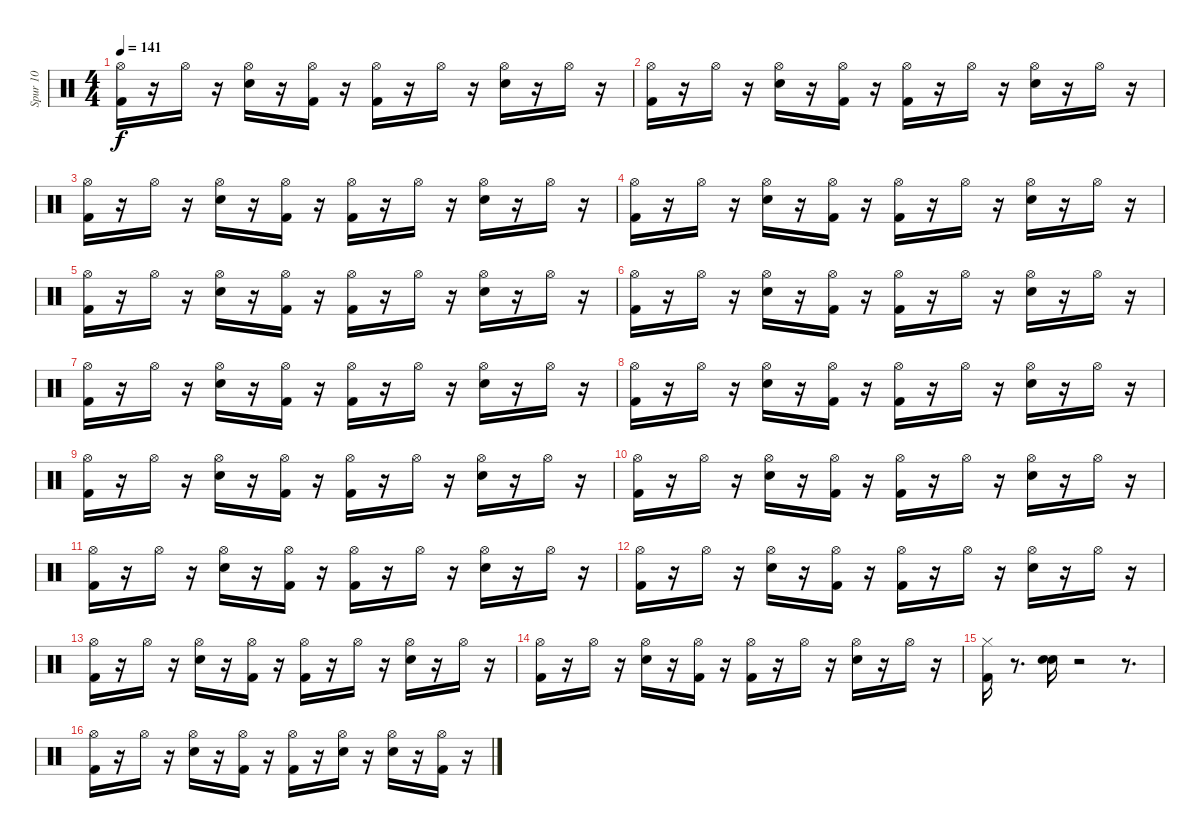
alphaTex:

\track ("Spur 10" "Spur 10") {instrument percussion}
\staff {score}
\articulation defaults
\ts (4 4)
\tempo 141
\clef neutral
\ks c
("Kick (hit) 2" "Hi-Hat (open)").16{dy f} r.16 "Hi-Hat (open)".16 r.16 ("Snare (hit) 2" "Hi-Hat (open)").16 r.16 ("Kick (hit) 2" "Hi-Hat (open)").16 r.16 ("Kick (hit) 2" "Hi-Hat (open)").16 r.16 "Hi-Hat (open)".16 r.16 ("Snare (hit) 2" "Hi-Hat (open)").16 r.16 "Hi-Hat (open)".16 r.16 |
("Hi-Hat (open)" "Kick (hit) 2").16 r.16 "Hi-Hat (open)".16 r.16 ("Hi-Hat (open)" "Snare (hit) 2").16 r.16 ("Hi-Hat (open)" "Kick (hit) 2").16 r.16 ("Hi-Hat (open)" "Kick (hit) 2").16 r.16 "Hi-Hat (open)".16 r.16 ("Hi-Hat (open)" "Snare (hit) 2").16 r.16 "Hi-Hat (open)".16 r.16 |
("Hi-Hat (open)" "Kick (hit) 2").16 r.16 "Hi-Hat (open)".16 r.16 ("Hi-Hat (open)" "Snare (hit) 2").16 r.16 ("Hi-Hat (open)" "Kick (hit) 2").16 r.16 ("Hi-Hat (open)" "Kick (hit) 2").16 r.16 "Hi-Hat (open)".16 r.16 ("Hi-Hat (open)" "Snare (hit) 2").16 r.16 "Hi-Hat (open)".16 r.16 |
("Hi-Hat (open)" "Kick (hit) 2").16 r.16 "Hi-Hat (open)".16 r.16 ("Hi-Hat (open)" "Snare (hit) 2").16 r.16 ("Hi-Hat (open)" "Kick (hit) 2").16 r.16 ("Hi-Hat (open)" "Kick (hit) 2").16 r.16 "Hi-Hat (open)".16 r.16 ("Hi-Hat (open)" "Snare (hit) 2").16 r.16 "Hi-Hat (open)".16 r.16 |
("Hi-Hat (open)" "Kick (hit) 2").16 r.16 "Hi-Hat (open)".16 r.16 ("Hi-Hat (open)" "Snare (hit) 2").16 r.16 ("Hi-Hat (open)" "Kick (hit) 2").16 r.16 ("Hi-Hat (open)" "Kick (hit) 2").16 r.16 "Hi-Hat (open)".16 r.16 ("Hi-Hat (open)" "Snare (hit) 2").16 r.16 "Hi-Hat (open)".16 r.16 |
("Hi-Hat (open)" "Kick (hit) 2").16 r.16 "Hi-Hat (open)".16 r.16 ("Hi-Hat (open)" "Snare (hit) 2").16 r.16 ("Hi-Hat (open)" "Kick (hit) 2").16 r.16 ("Hi-Hat (open)" "Kick (hit) 2").16 r.16 "Hi-Hat (open)".16 r.16 ("Hi-Hat (open)" "Snare (hit) 2").16 r.16 "Hi-Hat (open)".16 r.16 |
("Hi-Hat (open)" "Kick (hit) 2").16 r.16 "Hi-Hat (open)".16 r.16 ("Hi-Hat (open)" "Snare (hit) 2").16 r.16 ("Hi-Hat (open)" "Kick (hit) 2").16 r.16 ("Hi-Hat (open)" "Kick (hit) 2").16 r.16 "Hi-Hat (open)".16 r.16 ("Hi-Hat (open)" "Snare (hit) 2").16 r.16 "Hi-Hat (open)".16 r.16 |
("Hi-Hat (open)" "Kick (hit) 2").16 r.16 "Hi-Hat (open)".16 r.16 ("Hi-Hat (open)" "Snare (hit) 2").16 r.16 ("Hi-Hat (open)" "Kick (hit) 2").16 r.16 ("Hi-Hat (open)" "Kick (hit) 2").16 r.16 "Hi-Hat (open)".16 r.16 ("Hi-Hat (open)" "Snare (hit) 2").16 r.16 "Hi-Hat (open)".16 r.16 |
("Hi-Hat (open)" "Kick (hit) 2").16 r.16 "Hi-Hat (open)".16 r.16 ("Hi-Hat (open)" "Snare (hit) 2").16 r.16 ("Hi-Hat (open)" "Kick (hit) 2").16 r.16 ("Hi-Hat (open)" "Kick (hit) 2").16 r.16 "Hi-Hat (open)".16 r.16 ("Hi-Hat (open)" "Snare (hit) 2").16 r.16 "Hi-Hat (open)".16 r.16 |
("Hi-Hat (open)" "Kick (hit) 2").16 r.16 "Hi-Hat (open)".16 r.16 ("Hi-Hat (open)" "Snare (hit) 2").16 r.16 ("Hi-Hat (open)" "Kick (hit) 2").16 r.16 ("Hi-Hat (open)" "Kick (hit) 2").16 r.16 "Hi-Hat (open)".16 r.16 ("Hi-Hat (open)" "Snare (hit) 2").16 r.16 "Hi-Hat (open)".16 r.16 |
("Hi-Hat (open)" "Kick (hit) 2").16 r.16 "Hi-Hat (open)".16 r.16 ("Hi-Hat (open)" "Snare (hit) 2").16 r.16 ("Hi-Hat (open)" "Kick (hit) 2").16 r.16 ("Hi-Hat (open)" "Kick (hit) 2").16 r.16 "Hi-Hat (open)".16 r.16 ("Hi-Hat (open)" "Snare (hit) 2").16 r.16 "Hi-Hat (open)".16 r.16 |
("Hi-Hat (open)" "Kick (hit) 2").16 r.16 "Hi-Hat (open)".16 r.16 ("Hi-Hat (open)" "Snare (hit) 2").16 r.16 ("Hi-Hat (open)" "Kick (hit) 2").16 r.16 ("Hi-Hat (open)" "Kick (hit) 2").16 r.16 "Hi-Hat (open)".16 r.16 ("Hi-Hat (open)" "Snare (hit) 2").16 r.16 "Hi-Hat (open)".16 r.16 |
("Hi-Hat (open)" "Kick (hit) 2").16 r.16 "Hi-Hat (open)".16 r.16 ("Hi-Hat (open)" "Snare (hit) 2").16 r.16 ("Hi-Hat (open)" "Kick (hit) 2").16 r.16 ("Hi-Hat (open)" "Kick (hit) 2").16 r.16 "Hi-Hat (open)".16 r.16 ("Hi-Hat (open)" "Snare (hit) 2").16 r.16 "Hi-Hat (open)".16 r.16 |
("Hi-Hat (open)" "Kick (hit) 2").16 r.16 "Hi-Hat (open)".16 r.16 ("Hi-Hat (open)" "Snare (hit) 2").16 r.16 ("Hi-Hat (open)" "Kick (hit) 2").16 r.16 ("Hi-Hat (open)" "Kick (hit) 2").16 r.16 "Hi-Hat (open)".16 r.16 ("Hi-Hat (open)" "Snare (hit) 2").16 r.16 "Hi-Hat (open)".16 r.16 |
("Kick (hit) 2" "Hi-Hat (closed)").16 r.8{d} ("Electric Snare (hit)" "Snare (hit) 2").16 r.2 r.8{d} |
("Hi-Hat (open)" "Kick (hit) 2").16 r.16 "Hi-Hat (open)".16 r.16 ("Hi-Hat (open)" "Snare (hit) 2").16 r.16 ("Hi-Hat (open)" "Kick (hit) 2").16 r.16 ("Hi-Hat (open)" "Kick (hit) 2").16 r.16 ("Hi-Hat (open)" "Snare (hit) 2").16 r.16 ("Hi-Hat (open)" "Snare (hit) 2").16 r.16 ("Hi-Hat (open)" "Kick (hit) 2").16 r.16
